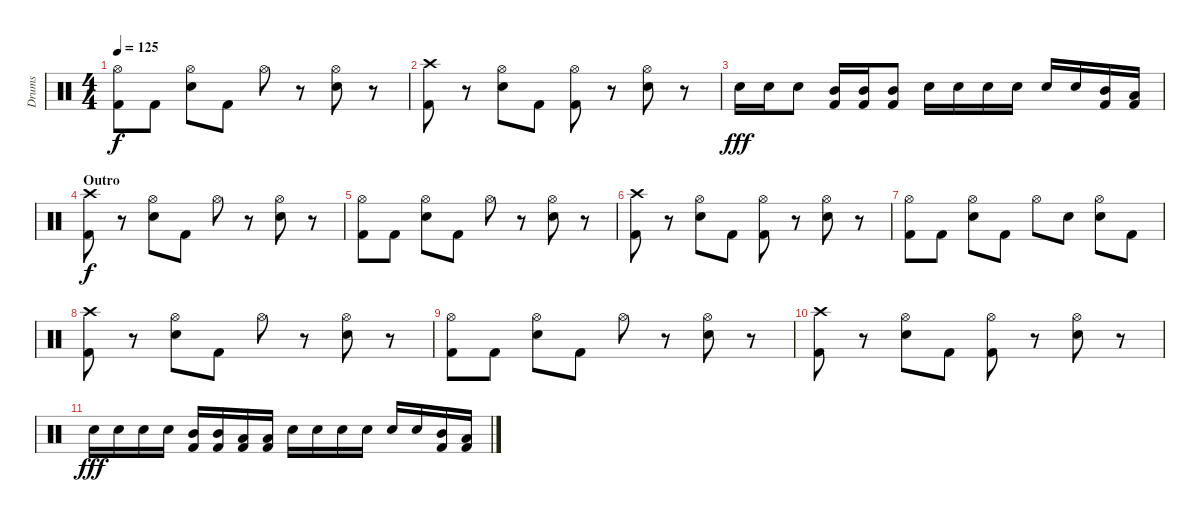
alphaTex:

\track ("Drums" "Drums") {instrument percussion}
\staff {score}
\articulation defaults
\ts (4 4)
\tempo 125
\clef neutral
\ks c
("Hi-Hat (open)" "Kick (hit) 2").8{dy f} "Kick (hit) 2".8 ("Hi-Hat (open)" "Snare (hit) 2").8 "Kick (hit) 2".8 "Hi-Hat (open)".8 r.8 ("Hi-Hat (open)" "Snare (hit) 2").8 r.8 |
("Crash high (hit)" "Kick (hit) 2").8 r.8 ("Hi-Hat (open)" "Snare (hit) 2").8 "Kick (hit) 2".8 ("Hi-Hat (open)" "Kick (hit) 2").8 r.8 ("Hi-Hat (open)" "Snare (hit) 2").8 r.8 |
"Snare (hit) 2".16{dy fff} "Snare (hit) 2".16 "Snare (hit) 2".8 ("Mid Tom (hit)" "Kick (hit) 2").16 ("Mid Tom (hit)" "Kick (hit) 2").16 ("Mid Tom (hit)" "Kick (hit) 2").8 "Snare (hit) 2".16 "Snare (hit) 2".16 "Snare (hit) 2".16 "Snare (hit) 2".16 "Snare (hit) 2".16 "Snare (hit) 2".16 ("Mid Tom (hit)" "Kick (hit) 2").16 ("Low Tom (hit)" "Kick (hit) 2").16 |
\section ("" "Outro")
("Crash high (hit)" "Kick (hit) 2").8{dy f} r.8 ("Hi-Hat (open)" "Snare (hit) 2").8 "Kick (hit) 2".8 "Hi-Hat (open)".8 r.8 ("Hi-Hat (open)" "Snare (hit) 2").8 r.8 |
("Hi-Hat (open)" "Kick (hit) 2").8 "Kick (hit) 2".8 ("Hi-Hat (open)" "Snare (hit) 2").8 "Kick (hit) 2".8 "Hi-Hat (open)".8 r.8 ("Hi-Hat (open)" "Snare (hit) 2").8 r.8 |
("Crash high (hit)" "Kick (hit) 2").8 r.8 ("Hi-Hat (open)" "Snare (hit) 2").8 "Kick (hit) 2".8 ("Hi-Hat (open)" "Kick (hit) 2").8 r.8 ("Hi-Hat (open)" "Snare (hit) 2").8 r.8 |
("Hi-Hat (open)" "Kick (hit) 2").8 "Kick (hit) 2".8 ("Hi-Hat (open)" "Snare (hit) 2").8 "Kick (hit) 2".8 "Hi-Hat (open)".8 "Snare (hit) 2".8 ("Hi-Hat (open)" "Snare (hit) 2").8 "Kick (hit) 2".8 |
("Crash high (hit)" "Kick (hit) 2").8 r.8 ("Hi-Hat (open)" "Snare (hit) 2").8 "Kick (hit) 2".8 "Hi-Hat (open)".8 r.8 ("Hi-Hat (open)" "Snare (hit) 2").8 r.8 |
("Hi-Hat (open)" "Kick (hit) 2").8 "Kick (hit) 2".8 ("Hi-Hat (open)" "Snare (hit) 2").8 "Kick (hit) 2".8 "Hi-Hat (open)".8 r.8 ("Hi-Hat (open)" "Snare (hit) 2").8 r.8 |
("Crash high (hit)" "Kick (hit) 2").8 r.8 ("Hi-Hat (open)" "Snare (hit) 2").8 "Kick (hit) 2".8 ("Hi-Hat (open)" "Kick (hit) 2").8 r.8 ("Hi-Hat (open)" "Snare (hit) 2").8 r.8 |
"Snare (hit) 2".16{dy fff} "Snare (hit) 2".16 "Snare (hit) 2".16 "Snare (hit) 2".16 ("Mid Tom (hit)" "Kick (hit) 2").16 ("Mid Tom (hit)" "Kick (hit) 2").16 ("Low Tom (hit)" "Kick (hit) 2").16 ("Low Tom (hit)" "Kick (hit) 2").16 "Snare (hit) 2".16 "Snare (hit) 2".16 "Snare (hit) 2".16 "Snare (hit) 2".16 "Snare (hit) 2".16 "Snare (hit) 2".16 ("Mid Tom (hit)" "Kick (hit) 2").16 ("Low Tom (hit)" "Kick (hit) 2").16
